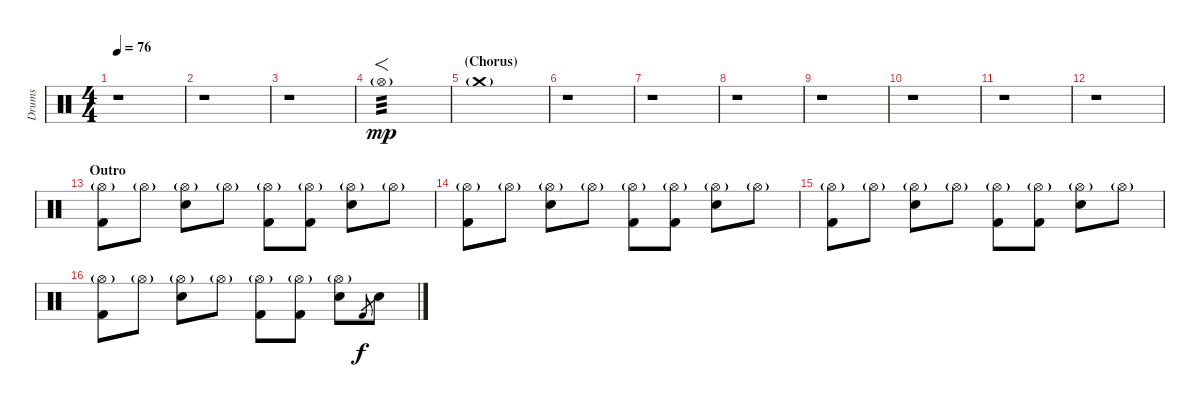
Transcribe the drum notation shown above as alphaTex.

\track ("Drums" "Drums") {instrument percussion}
\staff {score}
\articulation defaults
\ts (4 4)
\tempo 76
\clef neutral
\ks c
r.1{dy mp} |
r.1 |
r.1 |
"Hi-Hat (open)"{g}.1{f tp 3} |
\section ("" "(Chorus)")
"Crash medium (hit)"{g}.1 |
r.1 |
r.1 |
r.1 |
r.1 |
r.1 |
r.1 |
r.1 |
\section ("" "Outro")
("Kick (hit) 2" "Hi-Hat (open)"{g}).8 "Hi-Hat (open)"{g}.8 ("Electric Snare (hit)" "Hi-Hat (open)"{g}).8 "Hi-Hat (open)"{g}.8 ("Kick (hit) 2" "Hi-Hat (open)"{g}).8 ("Kick (hit) 2" "Hi-Hat (open)"{g}).8 ("Electric Snare (hit)" "Hi-Hat (open)"{g}).8 "Hi-Hat (open)"{g}.8 |
("Kick (hit) 2" "Hi-Hat (open)"{g}).8 "Hi-Hat (open)"{g}.8 ("Electric Snare (hit)" "Hi-Hat (open)"{g}).8 "Hi-Hat (open)"{g}.8 ("Kick (hit) 2" "Hi-Hat (open)"{g}).8 ("Kick (hit) 2" "Hi-Hat (open)"{g}).8 ("Electric Snare (hit)" "Hi-Hat (open)"{g}).8 "Hi-Hat (open)"{g}.8 |
("Kick (hit) 2" "Hi-Hat (open)"{g}).8 "Hi-Hat (open)"{g}.8 ("Electric Snare (hit)" "Hi-Hat (open)"{g}).8 "Hi-Hat (open)"{g}.8 ("Kick (hit) 2" "Hi-Hat (open)"{g}).8 ("Kick (hit) 2" "Hi-Hat (open)"{g}).8 ("Electric Snare (hit)" "Hi-Hat (open)"{g}).8 "Hi-Hat (open)"{g}.8 |
("Kick (hit) 2" "Hi-Hat (open)"{g}).8 "Hi-Hat (open)"{g}.8 ("Electric Snare (hit)" "Hi-Hat (open)"{g}).8 "Hi-Hat (open)"{g}.8 ("Kick (hit) 2" "Hi-Hat (open)"{g}).8 ("Kick (hit) 2" "Hi-Hat (open)"{g}).8 ("Electric Snare (hit)" "Hi-Hat (open)"{g}).8 "Kick (hit) 2".8{gr dy f} "Electric Snare (hit)".8
